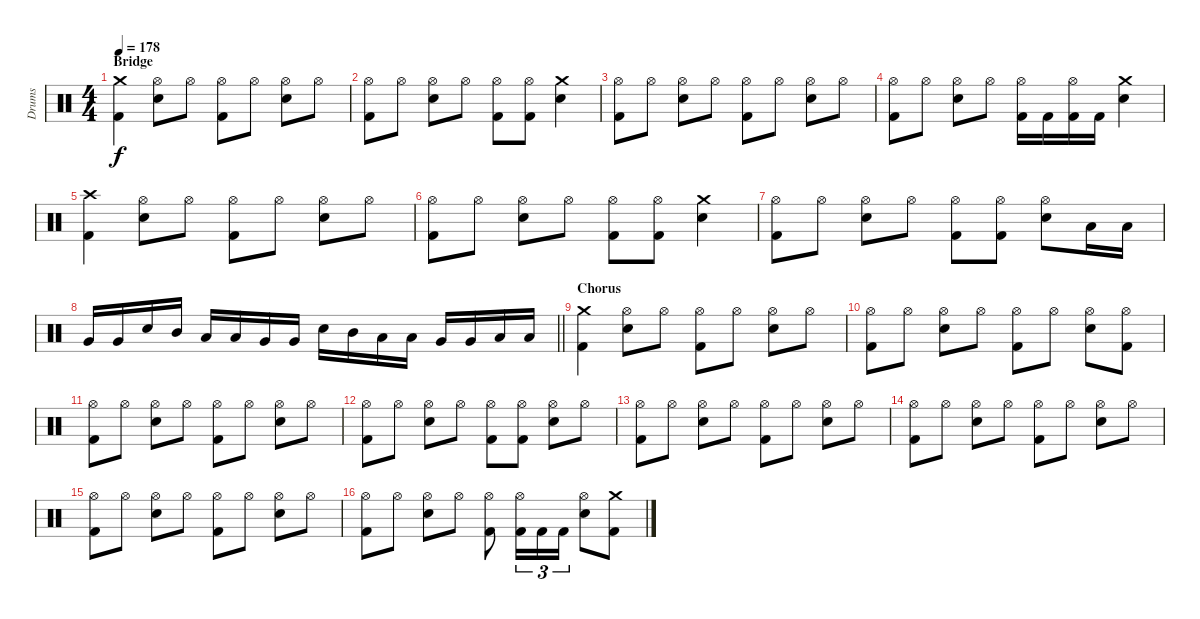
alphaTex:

\track ("Drums" "Drums") {instrument percussion}
\staff {score}
\articulation defaults
\ts (4 4)
\section ("" "Bridge")
\tempo 178
\clef neutral
\ks c
("Crash medium (hit)" "Kick (hit) 2").4{dy f} ("Hi-Hat (open)" "Electric Snare (hit)").8 "Hi-Hat (open)".8 ("Hi-Hat (open)" "Kick (hit) 2").8 "Hi-Hat (open)".8 ("Hi-Hat (open)" "Electric Snare (hit)").8 "Hi-Hat (open)".8 |
("Hi-Hat (open)" "Kick (hit) 2").8 "Hi-Hat (open)".8 ("Hi-Hat (open)" "Electric Snare (hit)").8 "Hi-Hat (open)".8 ("Hi-Hat (open)" "Kick (hit) 2").8 ("Hi-Hat (open)" "Kick (hit) 2").8 ("Crash medium (hit)" "Electric Snare (hit)").4 |
("Hi-Hat (open)" "Kick (hit) 2").8 "Hi-Hat (open)".8 ("Hi-Hat (open)" "Electric Snare (hit)").8 "Hi-Hat (open)".8 ("Hi-Hat (open)" "Kick (hit) 2").8 "Hi-Hat (open)".8 ("Hi-Hat (open)" "Electric Snare (hit)").8 "Hi-Hat (open)".8 |
("Hi-Hat (open)" "Kick (hit) 2").8 "Hi-Hat (open)".8 ("Hi-Hat (open)" "Electric Snare (hit)").8 "Hi-Hat (open)".8 ("Hi-Hat (open)" "Kick (hit) 2").16 "Kick (hit) 2".16 ("Hi-Hat (open)" "Kick (hit) 2").16 "Kick (hit) 2".16 ("Crash medium (hit)" "Electric Snare (hit)").4 |
("Crash high (hit)" "Kick (hit) 2").4 ("Hi-Hat (open)" "Electric Snare (hit)").8 "Hi-Hat (open)".8 ("Hi-Hat (open)" "Kick (hit) 2").8 "Hi-Hat (open)".8 ("Hi-Hat (open)" "Electric Snare (hit)").8 "Hi-Hat (open)".8 |
("Hi-Hat (open)" "Kick (hit) 2").8 "Hi-Hat (open)".8 ("Hi-Hat (open)" "Electric Snare (hit)").8 "Hi-Hat (open)".8 ("Hi-Hat (open)" "Kick (hit) 2").8 ("Hi-Hat (open)" "Kick (hit) 2").8 ("Crash medium (hit)" "Electric Snare (hit)").4 |
("Hi-Hat (open)" "Kick (hit) 2").8 "Hi-Hat (open)".8 ("Hi-Hat (open)" "Electric Snare (hit)").8 "Hi-Hat (open)".8 ("Hi-Hat (open)" "Kick (hit) 2").8 ("Hi-Hat (open)" "Kick (hit) 2").8 ("Hi-Hat (open)" "Electric Snare (hit)").8 "Low Tom (hit)".16 "Low Tom (hit)".16 |
\barLineRight lightlight "Very Low Tom (hit)".16 "Very Low Tom (hit)".16 "Electric Snare (hit)".16 "Mid Tom (hit)".16 "Low Tom (hit)".16 "Low Tom (hit)".16 "Very Low Tom (hit)".16 "Very Low Tom (hit)".16 "Electric Snare (hit)".16 "Mid Tom (hit)".16 "Low Tom (hit)".16 "Low Tom (hit)".16 "Very Low Tom (hit)".16 "Very Low Tom (hit)".16 "Low Floor Tom (hit)".16 "Low Floor Tom (hit)".16
|
\section ("" "Chorus")
("Crash medium (hit)" "Kick (hit) 2").4 ("Hi-Hat (open)" "Electric Snare (hit)").8 "Hi-Hat (open)".8 ("Hi-Hat (open)" "Kick (hit) 2").8 "Hi-Hat (open)".8 ("Hi-Hat (open)" "Electric Snare (hit)").8 "Hi-Hat (open)".8 |
("Hi-Hat (open)" "Kick (hit) 2").8 "Hi-Hat (open)".8 ("Hi-Hat (open)" "Electric Snare (hit)").8 "Hi-Hat (open)".8 ("Hi-Hat (open)" "Kick (hit) 2").8 "Hi-Hat (open)".8 ("Hi-Hat (open)" "Electric Snare (hit)").8 ("Hi-Hat (open)" "Kick (hit) 2").8 |
("Hi-Hat (open)" "Kick (hit) 2").8 "Hi-Hat (open)".8 ("Hi-Hat (open)" "Electric Snare (hit)").8 "Hi-Hat (open)".8 ("Hi-Hat (open)" "Kick (hit) 2").8 "Hi-Hat (open)".8 ("Hi-Hat (open)" "Electric Snare (hit)").8 "Hi-Hat (open)".8 |
("Hi-Hat (open)" "Kick (hit) 2").8 "Hi-Hat (open)".8 ("Hi-Hat (open)" "Electric Snare (hit)").8 "Hi-Hat (open)".8 ("Hi-Hat (open)" "Kick (hit) 2").8 ("Hi-Hat (open)" "Kick (hit) 2").8 ("Hi-Hat (open)" "Electric Snare (hit)").8 "Hi-Hat (open)".8 |
("Hi-Hat (open)" "Kick (hit) 2").8 "Hi-Hat (open)".8 ("Hi-Hat (open)" "Electric Snare (hit)").8 "Hi-Hat (open)".8 ("Hi-Hat (open)" "Kick (hit) 2").8 "Hi-Hat (open)".8 ("Hi-Hat (open)" "Electric Snare (hit)").8 "Hi-Hat (open)".8 |
("Hi-Hat (open)" "Kick (hit) 2").8 "Hi-Hat (open)".8 ("Hi-Hat (open)" "Electric Snare (hit)").8 "Hi-Hat (open)".8 ("Hi-Hat (open)" "Kick (hit) 2").8 "Hi-Hat (open)".8 ("Hi-Hat (open)" "Electric Snare (hit)").8 "Hi-Hat (open)".8 |
("Hi-Hat (open)" "Kick (hit) 2").8 "Hi-Hat (open)".8 ("Hi-Hat (open)" "Electric Snare (hit)").8 "Hi-Hat (open)".8 ("Hi-Hat (open)" "Kick (hit) 2").8 "Hi-Hat (open)".8 ("Hi-Hat (open)" "Electric Snare (hit)").8 "Hi-Hat (open)".8 |
("Hi-Hat (open)" "Kick (hit) 2").8 "Hi-Hat (open)".8 ("Hi-Hat (open)" "Electric Snare (hit)").8 "Hi-Hat (open)".8 ("Hi-Hat (open)" "Kick (hit) 2").8 ("Hi-Hat (open)" "Kick (hit) 2").16{tu (3 2)} "Kick (hit) 2".16{tu (3 2)} "Kick (hit) 2".16{tu (3 2)} ("Hi-Hat (open)" "Electric Snare (hit)").8 ("Crash medium (hit)" "Kick (hit) 2").8
